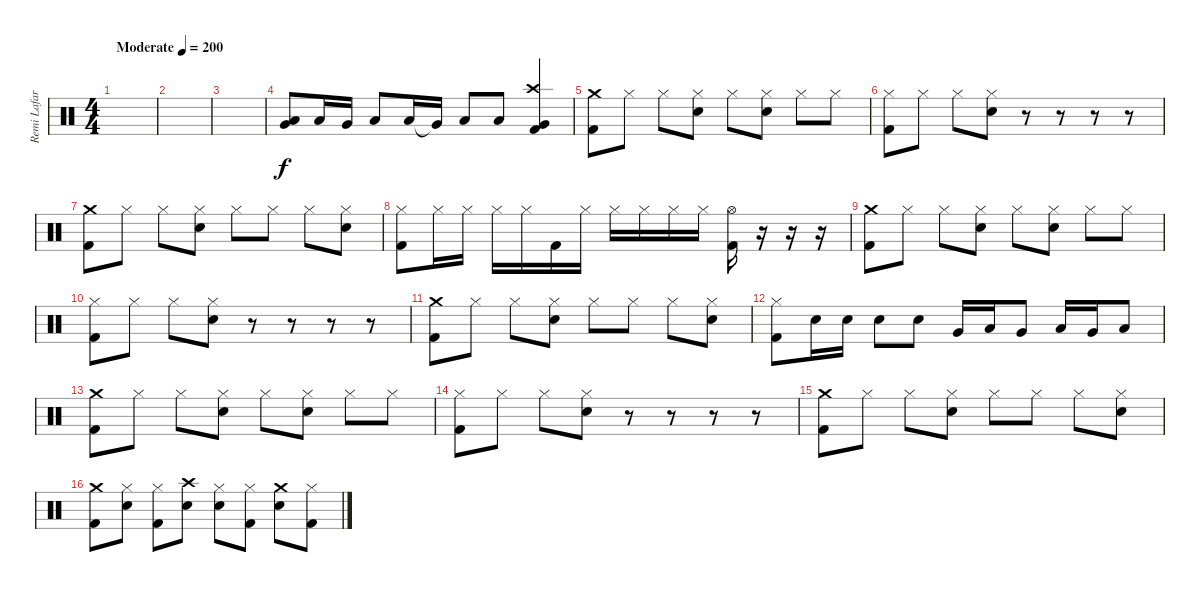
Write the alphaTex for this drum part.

\track ("Remi Lafargue " "Remi Lafar") {instrument percussion}
\staff {score}
\articulation defaults
\ts (4 4)
\tempo (200 "Moderate")
\clef neutral
\ks c
|
|
|
("Low Tom (hit)" "Very Low Tom (hit)").8 "Low Tom (hit)".16 "Very Low Tom (hit)".16 "Low Floor Tom (hit)".8 "Low Tom (hit)".16 "Very Low Tom (hit)"{t}.16 "Low Floor Tom (hit)".8 "Low Tom (hit)".8 ("Crash high (hit)" "Very Low Tom (hit)" "Kick (hit) 2").4 |
("Crash medium (hit)" "Kick (hit) 2").8 "Hi-Hat (closed)".8 "Hi-Hat (closed)".8 ("Hi-Hat (closed)" "Snare (hit) 2").8 "Hi-Hat (closed)".8 ("Hi-Hat (closed)" "Snare (hit) 2").8 "Hi-Hat (closed)".8 "Hi-Hat (closed)".8 |
("Hi-Hat (closed)" "Kick (hit) 2").8 "Hi-Hat (closed)".8 "Hi-Hat (closed)".8 ("Hi-Hat (closed)" "Snare (hit) 2").8 r.8 r.8 r.8 r.8 |
("Crash medium (hit)" "Kick (hit) 2").8 "Hi-Hat (closed)".8 "Hi-Hat (closed)".8 ("Hi-Hat (closed)" "Snare (hit) 2").8 "Hi-Hat (closed)".8 "Hi-Hat (closed)".8 "Hi-Hat (closed)".8 ("Hi-Hat (closed)" "Snare (hit) 2").8 |
("Hi-Hat (closed)" "Kick (hit) 2").8 "Hi-Hat (closed)".16 "Hi-Hat (closed)".16 "Hi-Hat (closed)".16 "Hi-Hat (closed)".16 "Kick (hit) 2".16 "Hi-Hat (closed)".16 "Hi-Hat (closed)".16 "Hi-Hat (closed)".16 "Hi-Hat (closed)".16 "Hi-Hat (closed)".16 ("Hi-Hat (open)" "Kick (hit) 2").16 r.16 r.16 r.16 |
("Crash medium (hit)" "Kick (hit) 2").8 "Hi-Hat (closed)".8 "Hi-Hat (closed)".8 ("Hi-Hat (closed)" "Snare (hit) 2").8 "Hi-Hat (closed)".8 ("Hi-Hat (closed)" "Snare (hit) 2").8 "Hi-Hat (closed)".8 "Hi-Hat (closed)".8 |
("Hi-Hat (closed)" "Kick (hit) 2").8 "Hi-Hat (closed)".8 "Hi-Hat (closed)".8 ("Hi-Hat (closed)" "Snare (hit) 2").8 r.8 r.8 r.8 r.8 |
("Crash medium (hit)" "Kick (hit) 2").8 "Hi-Hat (closed)".8 "Hi-Hat (closed)".8 ("Hi-Hat (closed)" "Snare (hit) 2").8 "Hi-Hat (closed)".8 "Hi-Hat (closed)".8 "Hi-Hat (closed)".8 ("Hi-Hat (closed)" "Snare (hit) 2").8 |
("Hi-Hat (closed)" "Kick (hit) 2").8 "Snare (hit) 2".16 "Snare (hit) 2".16 "Snare (hit) 2".8 "Snare (hit) 2".8 "Very Low Tom (hit)".16 "Low Tom (hit)".16 "Very Low Tom (hit)".8 "Low Floor Tom (hit)".16 "Very Low Tom (hit)".16 "Low Floor Tom (hit)".8 |
("Crash medium (hit)" "Kick (hit) 2").8 "Hi-Hat (closed)".8 "Hi-Hat (closed)".8 ("Hi-Hat (closed)" "Snare (hit) 2").8 "Hi-Hat (closed)".8 ("Hi-Hat (closed)" "Snare (hit) 2").8 "Hi-Hat (closed)".8 "Hi-Hat (closed)".8 |
("Hi-Hat (closed)" "Kick (hit) 2").8 "Hi-Hat (closed)".8 "Hi-Hat (closed)".8 ("Hi-Hat (closed)" "Snare (hit) 2").8 r.8 r.8 r.8 r.8 |
("Crash medium (hit)" "Kick (hit) 2").8 "Hi-Hat (closed)".8 "Hi-Hat (closed)".8 ("Hi-Hat (closed)" "Snare (hit) 2").8 "Hi-Hat (closed)".8 "Hi-Hat (closed)".8 "Hi-Hat (closed)".8 ("Hi-Hat (closed)" "Snare (hit) 2").8 |
("Crash medium (hit)" "Kick (hit) 2").8 ("Hi-Hat (closed)" "Snare (hit) 2").8 ("Hi-Hat (closed)" "Kick (hit) 2").8 ("Crash high (hit)" "Snare (hit) 2").8 ("Hi-Hat (closed)" "Snare (hit) 2").8 ("Hi-Hat (closed)" "Kick (hit) 2").8 ("Crash medium (hit)" "Snare (hit) 2").8 ("Hi-Hat (closed)" "Kick (hit) 2").8
